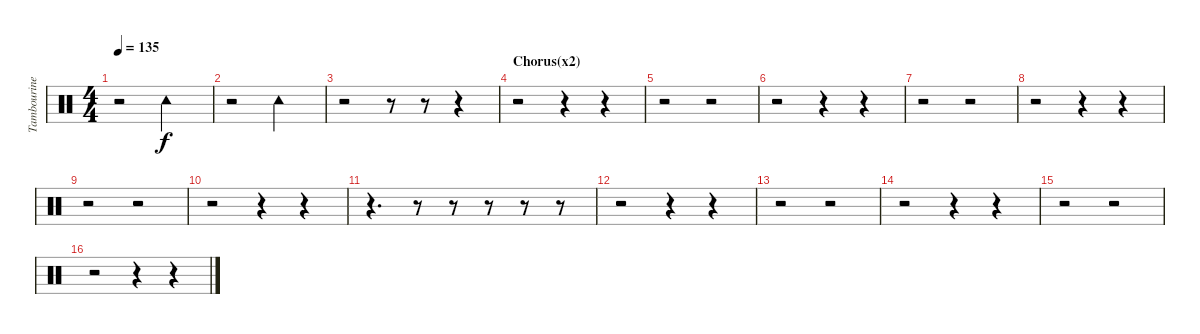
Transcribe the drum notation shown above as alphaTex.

\track ("Tambourine" "Tambourine") {instrument percussion}
\staff {score}
\articulation defaults
\ts (4 4)
\tempo 135
\clef neutral
\ks c
r.2{dy f} "Tambourine (hit)".2 |
r.2 "Tambourine (hit)".2 |
r.2 r.8 r.8 r.4 |
\section ("" "Chorus(x2)")
r.2 r.4 r.4 |
r.2 r.2 |
r.2 r.4 r.4 |
r.2 r.2 |
r.2 r.4 r.4 |
r.2 r.2 |
r.2 r.4 r.4 |
r.4{d} r.8 r.8 r.8 r.8 r.8 |
r.2 r.4 r.4 |
r.2 r.2 |
r.2 r.4 r.4 |
r.2 r.2 |
r.2 r.4 r.4
